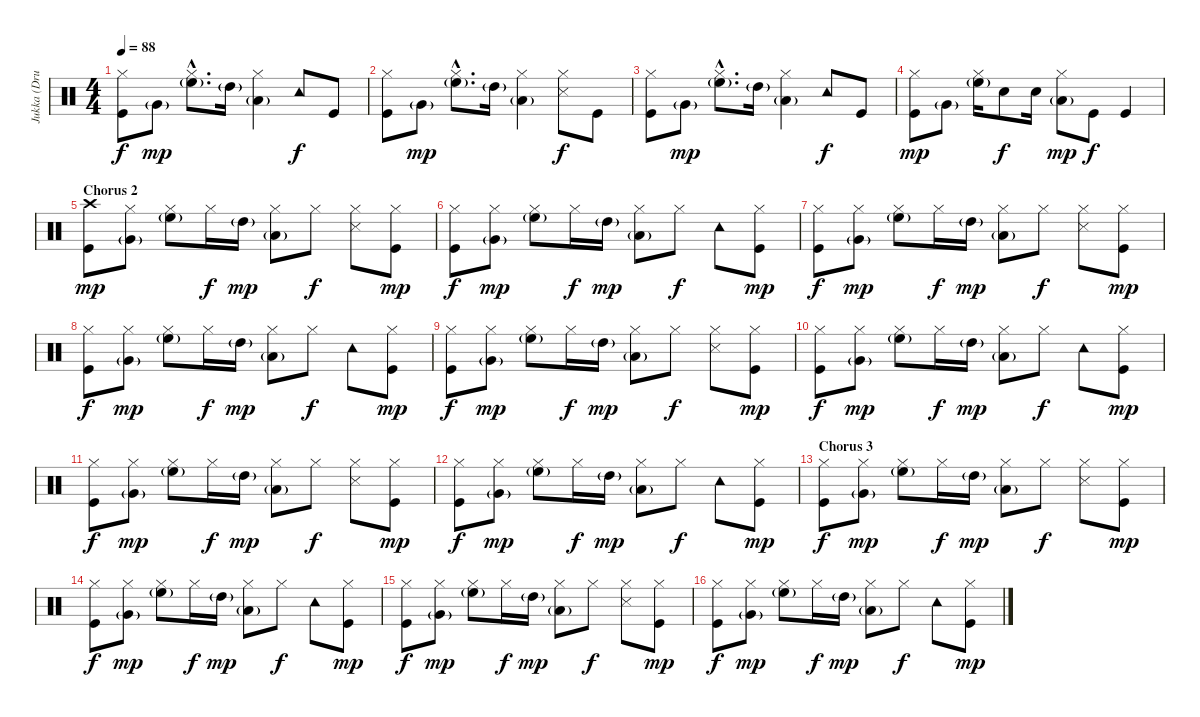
\track ("Jukka (Drums)" "Jukka (Dru") {instrument percussion}
\staff {score}
\articulation defaults
\ts (4 4)
\tempo 88
\clef neutral
\ks c
("Hi-Hat (closed)" "Kick (hit)").8{dy f} "Very Low Tom (hit)"{g}.8{dy mp} ("Hi-Hat (closed)"{hac} "High Floor Tom (hit)"{g hac}).8{d} "High Tom (hit)"{g}.16 ("Hi-Hat (closed)" "Low Floor Tom (hit)"{g}).4 "Tambourine (hit)".8{dy f} "Kick (hit)".8 |
("Hi-Hat (closed)" "Kick (hit)").8 "Very Low Tom (hit)"{g}.8{dy mp} ("Hi-Hat (closed)"{hac} "High Floor Tom (hit)"{g hac}).8{d} "High Tom (hit)"{g}.16 ("Hi-Hat (closed)" "Low Floor Tom (hit)"{g}).4 ("Hi-Hat (closed)" "Snare (side stick) 3").8{dy f} "Kick (hit)".8 |
("Hi-Hat (closed)" "Kick (hit)").8 "Very Low Tom (hit)"{g}.8{dy mp} ("Hi-Hat (closed)"{hac} "High Floor Tom (hit)"{g hac}).8{d} "High Tom (hit)"{g}.16 ("Hi-Hat (closed)" "Low Floor Tom (hit)"{g}).4 "Tambourine (hit)".8{dy f} "Kick (hit)".8 |
("Hi-Hat (closed)" "Kick (hit)").8{dy mp} "Very Low Tom (hit)"{g}.8 ("Hi-Hat (closed)" "High Floor Tom (hit)"{g}).16 "Electric Snare (hit)".8{dy f} "Electric Snare (hit)".16 ("Hi-Hat (closed)" "Low Floor Tom (hit)"{g}).8{dy mp} "Kick (hit)".8{dy f} "Kick (hit)".4 |
\section ("" "Chorus 2")
("Crash high (hit)" "Kick (hit)").8{dy mp} ("Hi-Hat (closed)" "Very Low Tom (hit)"{g}).8 ("Hi-Hat (closed)" "High Floor Tom (hit)"{g}).8 "Hi-Hat (closed)".16{dy f} "High Tom (hit)"{g}.16{dy mp} ("Hi-Hat (closed)" "Low Floor Tom (hit)"{g}).8 "Hi-Hat (closed)".8{dy f} ("Hi-Hat (closed)" "Snare (side stick) 3").8 ("Hi-Hat (closed)" "Kick (hit)").8{dy mp} |
("Hi-Hat (closed)" "Kick (hit)").8{dy f} ("Hi-Hat (closed)" "Very Low Tom (hit)"{g}).8{dy mp} ("Hi-Hat (closed)" "High Floor Tom (hit)"{g}).8 "Hi-Hat (closed)".16{dy f} "High Tom (hit)"{g}.16{dy mp} ("Hi-Hat (closed)" "Low Floor Tom (hit)"{g}).8 "Hi-Hat (closed)".8{dy f} "Tambourine (hit)".8 ("Hi-Hat (closed)" "Kick (hit)").8{dy mp} |
("Hi-Hat (closed)" "Kick (hit)").8{dy f} ("Hi-Hat (closed)" "Very Low Tom (hit)"{g}).8{dy mp} ("Hi-Hat (closed)" "High Floor Tom (hit)"{g}).8 "Hi-Hat (closed)".16{dy f} "High Tom (hit)"{g}.16{dy mp} ("Hi-Hat (closed)" "Low Floor Tom (hit)"{g}).8 "Hi-Hat (closed)".8{dy f} ("Hi-Hat (closed)" "Snare (side stick) 3").8 ("Hi-Hat (closed)" "Kick (hit)").8{dy mp} |
("Hi-Hat (closed)" "Kick (hit)").8{dy f} ("Hi-Hat (closed)" "Very Low Tom (hit)"{g}).8{dy mp} ("Hi-Hat (closed)" "High Floor Tom (hit)"{g}).8 "Hi-Hat (closed)".16{dy f} "High Tom (hit)"{g}.16{dy mp} ("Hi-Hat (closed)" "Low Floor Tom (hit)"{g}).8 "Hi-Hat (closed)".8{dy f} "Tambourine (hit)".8 ("Hi-Hat (closed)" "Kick (hit)").8{dy mp} |
("Hi-Hat (closed)" "Kick (hit)").8{dy f} ("Hi-Hat (closed)" "Very Low Tom (hit)"{g}).8{dy mp} ("Hi-Hat (closed)" "High Floor Tom (hit)"{g}).8 "Hi-Hat (closed)".16{dy f} "High Tom (hit)"{g}.16{dy mp} ("Hi-Hat (closed)" "Low Floor Tom (hit)"{g}).8 "Hi-Hat (closed)".8{dy f} ("Hi-Hat (closed)" "Snare (side stick) 3").8 ("Hi-Hat (closed)" "Kick (hit)").8{dy mp} |
("Hi-Hat (closed)" "Kick (hit)").8{dy f} ("Hi-Hat (closed)" "Very Low Tom (hit)"{g}).8{dy mp} ("Hi-Hat (closed)" "High Floor Tom (hit)"{g}).8 "Hi-Hat (closed)".16{dy f} "High Tom (hit)"{g}.16{dy mp} ("Hi-Hat (closed)" "Low Floor Tom (hit)"{g}).8 "Hi-Hat (closed)".8{dy f} "Tambourine (hit)".8 ("Hi-Hat (closed)" "Kick (hit)").8{dy mp} |
("Hi-Hat (closed)" "Kick (hit)").8{dy f} ("Hi-Hat (closed)" "Very Low Tom (hit)"{g}).8{dy mp} ("Hi-Hat (closed)" "High Floor Tom (hit)"{g}).8 "Hi-Hat (closed)".16{dy f} "High Tom (hit)"{g}.16{dy mp} ("Hi-Hat (closed)" "Low Floor Tom (hit)"{g}).8 "Hi-Hat (closed)".8{dy f} ("Hi-Hat (closed)" "Snare (side stick) 3").8 ("Hi-Hat (closed)" "Kick (hit)").8{dy mp} |
("Hi-Hat (closed)" "Kick (hit)").8{dy f} ("Hi-Hat (closed)" "Very Low Tom (hit)"{g}).8{dy mp} ("Hi-Hat (closed)" "High Floor Tom (hit)"{g}).8 "Hi-Hat (closed)".16{dy f} "High Tom (hit)"{g}.16{dy mp} ("Hi-Hat (closed)" "Low Floor Tom (hit)"{g}).8 "Hi-Hat (closed)".8{dy f} "Tambourine (hit)".8 ("Hi-Hat (closed)" "Kick (hit)").8{dy mp} |
\section ("" "Chorus 3")
("Hi-Hat (closed)" "Kick (hit)").8{dy f} ("Hi-Hat (closed)" "Very Low Tom (hit)"{g}).8{dy mp} ("Hi-Hat (closed)" "High Floor Tom (hit)"{g}).8 "Hi-Hat (closed)".16{dy f} "High Tom (hit)"{g}.16{dy mp} ("Hi-Hat (closed)" "Low Floor Tom (hit)"{g}).8 "Hi-Hat (closed)".8{dy f} ("Hi-Hat (closed)" "Snare (side stick) 3").8 ("Hi-Hat (closed)" "Kick (hit)").8{dy mp} |
("Hi-Hat (closed)" "Kick (hit)").8{dy f} ("Hi-Hat (closed)" "Very Low Tom (hit)"{g}).8{dy mp} ("Hi-Hat (closed)" "High Floor Tom (hit)"{g}).8 "Hi-Hat (closed)".16{dy f} "High Tom (hit)"{g}.16{dy mp} ("Hi-Hat (closed)" "Low Floor Tom (hit)"{g}).8 "Hi-Hat (closed)".8{dy f} "Tambourine (hit)".8 ("Hi-Hat (closed)" "Kick (hit)").8{dy mp} |
("Hi-Hat (closed)" "Kick (hit)").8{dy f} ("Hi-Hat (closed)" "Very Low Tom (hit)"{g}).8{dy mp} ("Hi-Hat (closed)" "High Floor Tom (hit)"{g}).8 "Hi-Hat (closed)".16{dy f} "High Tom (hit)"{g}.16{dy mp} ("Hi-Hat (closed)" "Low Floor Tom (hit)"{g}).8 "Hi-Hat (closed)".8{dy f} ("Hi-Hat (closed)" "Snare (side stick) 3").8 ("Hi-Hat (closed)" "Kick (hit)").8{dy mp} |
("Hi-Hat (closed)" "Kick (hit)").8{dy f} ("Hi-Hat (closed)" "Very Low Tom (hit)"{g}).8{dy mp} ("Hi-Hat (closed)" "High Floor Tom (hit)"{g}).8 "Hi-Hat (closed)".16{dy f} "High Tom (hit)"{g}.16{dy mp} ("Hi-Hat (closed)" "Low Floor Tom (hit)"{g}).8 "Hi-Hat (closed)".8{dy f} "Tambourine (hit)".8 ("Hi-Hat (closed)" "Kick (hit)").8{dy mp}
